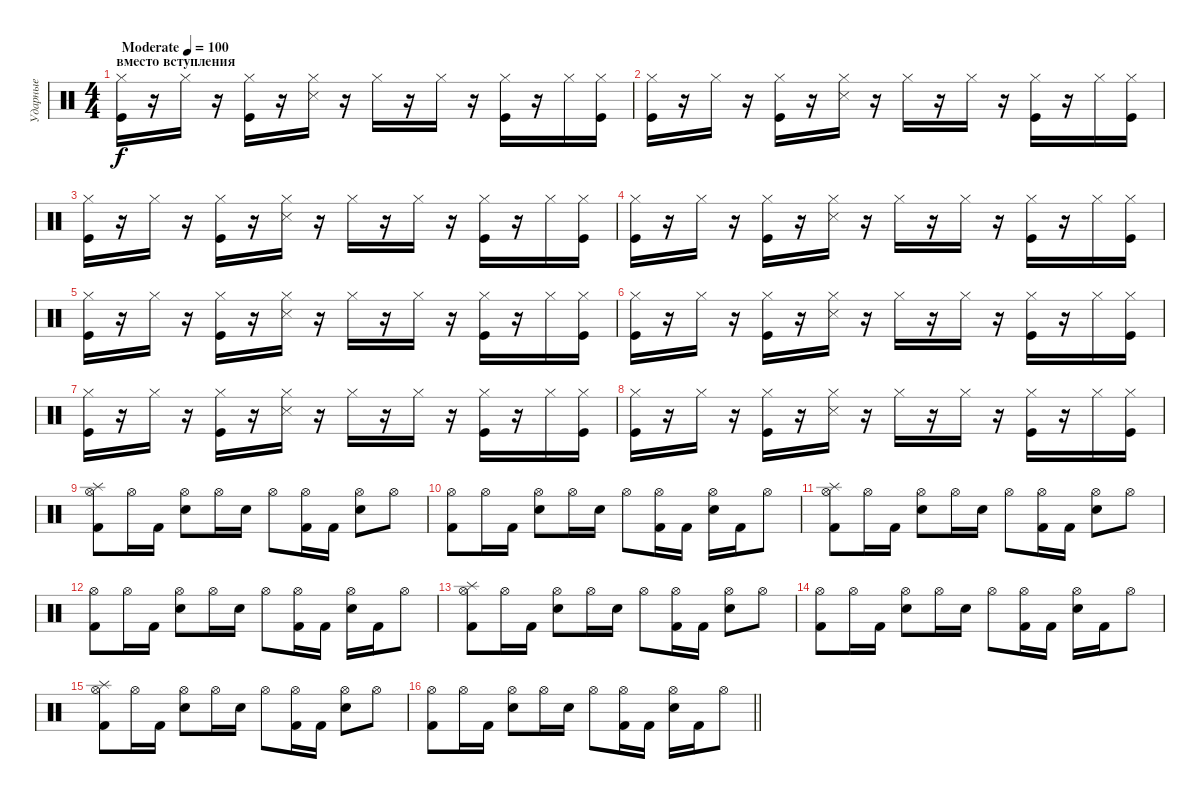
\track ("Ударные" "Ударные") {instrument percussion}
\staff {score}
\articulation defaults
\ts (4 4)
\section ("" "вместо вступления")
\tempo (100 "Moderate")
\clef neutral
\ks c
("Hi-Hat (closed)" "Kick (hit)").16{dy f} r.16 "Hi-Hat (closed)".16 r.16 ("Hi-Hat (closed)" "Kick (hit)").16 r.16 ("Hi-Hat (closed)" "Snare (side stick) 3").16 r.16 "Hi-Hat (closed)".16 r.16 "Hi-Hat (closed)".16 r.16 ("Hi-Hat (closed)" "Kick (hit)").16 r.16 "Hi-Hat (closed)".16 ("Hi-Hat (closed)" "Kick (hit)").16 |
("Hi-Hat (closed)" "Kick (hit)").16 r.16 "Hi-Hat (closed)".16 r.16 ("Hi-Hat (closed)" "Kick (hit)").16 r.16 ("Hi-Hat (closed)" "Snare (side stick) 3").16 r.16 "Hi-Hat (closed)".16 r.16 "Hi-Hat (closed)".16 r.16 ("Hi-Hat (closed)" "Kick (hit)").16 r.16 "Hi-Hat (closed)".16 ("Hi-Hat (closed)" "Kick (hit)").16 |
("Hi-Hat (closed)" "Kick (hit)").16 r.16 "Hi-Hat (closed)".16 r.16 ("Hi-Hat (closed)" "Kick (hit)").16 r.16 ("Hi-Hat (closed)" "Snare (side stick) 3").16 r.16 "Hi-Hat (closed)".16 r.16 "Hi-Hat (closed)".16 r.16 ("Hi-Hat (closed)" "Kick (hit)").16 r.16 "Hi-Hat (closed)".16 ("Hi-Hat (closed)" "Kick (hit)").16 |
("Hi-Hat (closed)" "Kick (hit)").16 r.16 "Hi-Hat (closed)".16 r.16 ("Hi-Hat (closed)" "Kick (hit)").16 r.16 ("Hi-Hat (closed)" "Snare (side stick) 3").16 r.16 "Hi-Hat (closed)".16 r.16 "Hi-Hat (closed)".16 r.16 ("Hi-Hat (closed)" "Kick (hit)").16 r.16 "Hi-Hat (closed)".16 ("Hi-Hat (closed)" "Kick (hit)").16 |
("Hi-Hat (closed)" "Kick (hit)").16 r.16 "Hi-Hat (closed)".16 r.16 ("Hi-Hat (closed)" "Kick (hit)").16 r.16 ("Hi-Hat (closed)" "Snare (side stick) 3").16 r.16 "Hi-Hat (closed)".16 r.16 "Hi-Hat (closed)".16 r.16 ("Hi-Hat (closed)" "Kick (hit)").16 r.16 "Hi-Hat (closed)".16 ("Hi-Hat (closed)" "Kick (hit)").16 |
("Hi-Hat (closed)" "Kick (hit)").16 r.16 "Hi-Hat (closed)".16 r.16 ("Hi-Hat (closed)" "Kick (hit)").16 r.16 ("Hi-Hat (closed)" "Snare (side stick) 3").16 r.16 "Hi-Hat (closed)".16 r.16 "Hi-Hat (closed)".16 r.16 ("Hi-Hat (closed)" "Kick (hit)").16 r.16 "Hi-Hat (closed)".16 ("Hi-Hat (closed)" "Kick (hit)").16 |
("Hi-Hat (closed)" "Kick (hit)").16 r.16 "Hi-Hat (closed)".16 r.16 ("Hi-Hat (closed)" "Kick (hit)").16 r.16 ("Hi-Hat (closed)" "Snare (side stick) 3").16 r.16 "Hi-Hat (closed)".16 r.16 "Hi-Hat (closed)".16 r.16 ("Hi-Hat (closed)" "Kick (hit)").16 r.16 "Hi-Hat (closed)".16 ("Hi-Hat (closed)" "Kick (hit)").16 |
("Hi-Hat (closed)" "Kick (hit)").16 r.16 "Hi-Hat (closed)".16 r.16 ("Hi-Hat (closed)" "Kick (hit)").16 r.16 ("Hi-Hat (closed)" "Snare (side stick) 3").16 r.16 "Hi-Hat (closed)".16 r.16 "Hi-Hat (closed)".16 r.16 ("Hi-Hat (closed)" "Kick (hit)").16 r.16 "Hi-Hat (closed)".16 ("Hi-Hat (closed)" "Kick (hit)").16 |
("Hi-Hat (open)" "Splash (hit)" "Kick (hit) 2").8 "Hi-Hat (open)".16 "Kick (hit) 2".16 ("Hi-Hat (open)" "Snare (hit) 2").8 "Hi-Hat (open)".16 "Snare (hit) 2".16 "Hi-Hat (open)".8 ("Hi-Hat (open)" "Kick (hit) 2").16 "Kick (hit) 2".16 ("Hi-Hat (open)" "Snare (hit) 2").8 "Hi-Hat (open)".8 |
("Hi-Hat (open)" "Kick (hit) 2").8 "Hi-Hat (open)".16 "Kick (hit) 2".16 ("Hi-Hat (open)" "Snare (hit) 2").8 "Hi-Hat (open)".16 "Snare (hit) 2".16 "Hi-Hat (open)".8 ("Hi-Hat (open)" "Kick (hit) 2").16 "Kick (hit) 2".16 ("Hi-Hat (open)" "Snare (hit) 2").16 "Kick (hit) 2".16 "Hi-Hat (open)".8 |
("Hi-Hat (open)" "Splash (hit)" "Kick (hit) 2").8 "Hi-Hat (open)".16 "Kick (hit) 2".16 ("Hi-Hat (open)" "Snare (hit) 2").8 "Hi-Hat (open)".16 "Snare (hit) 2".16 "Hi-Hat (open)".8 ("Hi-Hat (open)" "Kick (hit) 2").16 "Kick (hit) 2".16 ("Hi-Hat (open)" "Snare (hit) 2").8 "Hi-Hat (open)".8 |
("Hi-Hat (open)" "Kick (hit) 2").8 "Hi-Hat (open)".16 "Kick (hit) 2".16 ("Hi-Hat (open)" "Snare (hit) 2").8 "Hi-Hat (open)".16 "Snare (hit) 2".16 "Hi-Hat (open)".8 ("Hi-Hat (open)" "Kick (hit) 2").16 "Kick (hit) 2".16 ("Hi-Hat (open)" "Snare (hit) 2").16 "Kick (hit) 2".16 "Hi-Hat (open)".8 |
("Hi-Hat (open)" "Splash (hit)" "Kick (hit) 2").8 "Hi-Hat (open)".16 "Kick (hit) 2".16 ("Hi-Hat (open)" "Snare (hit) 2").8 "Hi-Hat (open)".16 "Snare (hit) 2".16 "Hi-Hat (open)".8 ("Hi-Hat (open)" "Kick (hit) 2").16 "Kick (hit) 2".16 ("Hi-Hat (open)" "Snare (hit) 2").8 "Hi-Hat (open)".8 |
("Hi-Hat (open)" "Kick (hit) 2").8 "Hi-Hat (open)".16 "Kick (hit) 2".16 ("Hi-Hat (open)" "Snare (hit) 2").8 "Hi-Hat (open)".16 "Snare (hit) 2".16 "Hi-Hat (open)".8 ("Hi-Hat (open)" "Kick (hit) 2").16 "Kick (hit) 2".16 ("Hi-Hat (open)" "Snare (hit) 2").16 "Kick (hit) 2".16 "Hi-Hat (open)".8 |
("Hi-Hat (open)" "Splash (hit)" "Kick (hit) 2").8 "Hi-Hat (open)".16 "Kick (hit) 2".16 ("Hi-Hat (open)" "Snare (hit) 2").8 "Hi-Hat (open)".16 "Snare (hit) 2".16 "Hi-Hat (open)".8 ("Hi-Hat (open)" "Kick (hit) 2").16 "Kick (hit) 2".16 ("Hi-Hat (open)" "Snare (hit) 2").8 "Hi-Hat (open)".8 |
\barLineRight lightlight
("Hi-Hat (open)" "Kick (hit) 2").8 "Hi-Hat (open)".16 "Kick (hit) 2".16 ("Hi-Hat (open)" "Snare (hit) 2").8 "Hi-Hat (open)".16 "Snare (hit) 2".16 "Hi-Hat (open)".8 ("Hi-Hat (open)" "Kick (hit) 2").16 "Kick (hit) 2".16 ("Hi-Hat (open)" "Snare (hit) 2").16 "Kick (hit) 2".16 "Hi-Hat (open)".8
